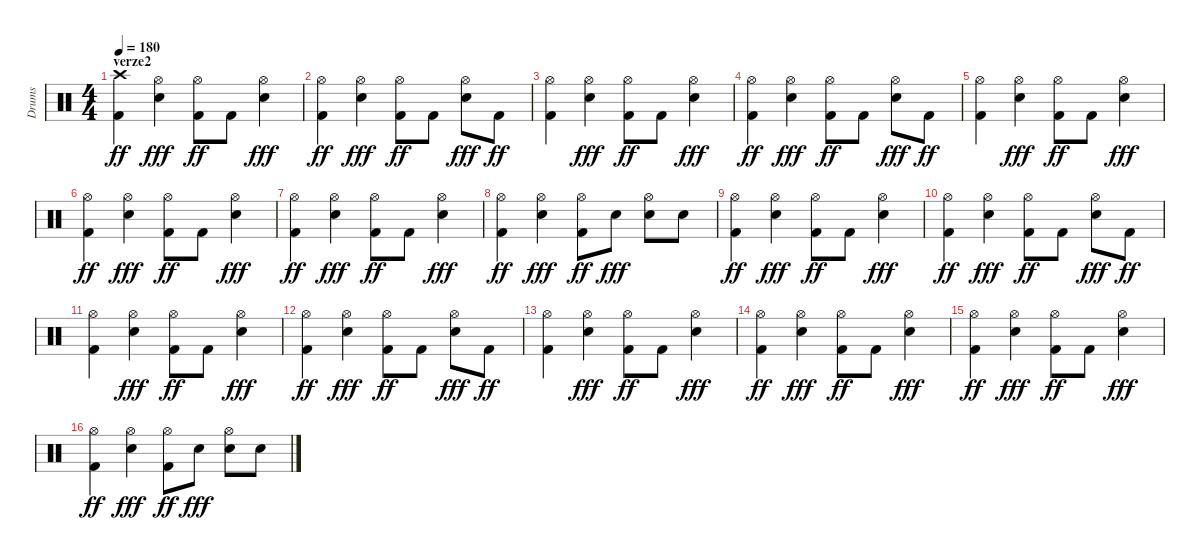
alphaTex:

\track ("Drums" "Drums") {instrument percussion}
\staff {score}
\articulation defaults
\ts (4 4)
\section ("" "verze2")
\tempo 180
\clef neutral
\ks c
("Crash high (hit)" "Kick (hit) 2").4{dy ff} ("Hi-Hat (open)" "Snare (hit) 2").4{dy fff} ("Hi-Hat (open)" "Kick (hit) 2").8{dy ff} "Kick (hit) 2".8 ("Hi-Hat (open)" "Snare (hit) 2").4{dy fff} |
("Hi-Hat (open)" "Kick (hit) 2").4{dy ff} ("Hi-Hat (open)" "Snare (hit) 2").4{dy fff} ("Hi-Hat (open)" "Kick (hit) 2").8{dy ff} "Kick (hit) 2".8 ("Hi-Hat (open)" "Snare (hit) 2").8{dy fff} "Kick (hit) 2".8{dy ff} |
("Hi-Hat (open)" "Kick (hit) 2").4 ("Hi-Hat (open)" "Snare (hit) 2").4{dy fff} ("Hi-Hat (open)" "Kick (hit) 2").8{dy ff} "Kick (hit) 2".8 ("Hi-Hat (open)" "Snare (hit) 2").4{dy fff} |
("Hi-Hat (open)" "Kick (hit) 2").4{dy ff} ("Hi-Hat (open)" "Snare (hit) 2").4{dy fff} ("Hi-Hat (open)" "Kick (hit) 2").8{dy ff} "Kick (hit) 2".8 ("Hi-Hat (open)" "Snare (hit) 2").8{dy fff} "Kick (hit) 2".8{dy ff} |
("Hi-Hat (open)" "Kick (hit) 2").4 ("Hi-Hat (open)" "Snare (hit) 2").4{dy fff} ("Hi-Hat (open)" "Kick (hit) 2").8{dy ff} "Kick (hit) 2".8 ("Hi-Hat (open)" "Snare (hit) 2").4{dy fff} |
("Hi-Hat (open)" "Kick (hit) 2").4{dy ff} ("Hi-Hat (open)" "Snare (hit) 2").4{dy fff} ("Hi-Hat (open)" "Kick (hit) 2").8{dy ff} "Kick (hit) 2".8 ("Hi-Hat (open)" "Snare (hit) 2").4{dy fff} |
("Hi-Hat (open)" "Kick (hit) 2").4{dy ff} ("Hi-Hat (open)" "Snare (hit) 2").4{dy fff} ("Hi-Hat (open)" "Kick (hit) 2").8{dy ff} "Kick (hit) 2".8 ("Hi-Hat (open)" "Snare (hit) 2").4{dy fff} |
("Hi-Hat (open)" "Kick (hit) 2").4{dy ff} ("Hi-Hat (open)" "Snare (hit) 2").4{dy fff} ("Hi-Hat (open)" "Kick (hit) 2").8{dy ff} "Snare (hit) 2".8{dy fff} ("Hi-Hat (open)" "Snare (hit) 2").8 "Snare (hit) 2".8 |
("Hi-Hat (open)" "Kick (hit) 2").4{dy ff} ("Hi-Hat (open)" "Snare (hit) 2").4{dy fff} ("Hi-Hat (open)" "Kick (hit) 2").8{dy ff} "Kick (hit) 2".8 ("Hi-Hat (open)" "Snare (hit) 2").4{dy fff} |
("Hi-Hat (open)" "Kick (hit) 2").4{dy ff} ("Hi-Hat (open)" "Snare (hit) 2").4{dy fff} ("Hi-Hat (open)" "Kick (hit) 2").8{dy ff} "Kick (hit) 2".8 ("Hi-Hat (open)" "Snare (hit) 2").8{dy fff} "Kick (hit) 2".8{dy ff} |
("Hi-Hat (open)" "Kick (hit) 2").4 ("Hi-Hat (open)" "Snare (hit) 2").4{dy fff} ("Hi-Hat (open)" "Kick (hit) 2").8{dy ff} "Kick (hit) 2".8 ("Hi-Hat (open)" "Snare (hit) 2").4{dy fff} |
("Hi-Hat (open)" "Kick (hit) 2").4{dy ff} ("Hi-Hat (open)" "Snare (hit) 2").4{dy fff} ("Hi-Hat (open)" "Kick (hit) 2").8{dy ff} "Kick (hit) 2".8 ("Hi-Hat (open)" "Snare (hit) 2").8{dy fff} "Kick (hit) 2".8{dy ff} |
("Hi-Hat (open)" "Kick (hit) 2").4 ("Hi-Hat (open)" "Snare (hit) 2").4{dy fff} ("Hi-Hat (open)" "Kick (hit) 2").8{dy ff} "Kick (hit) 2".8 ("Hi-Hat (open)" "Snare (hit) 2").4{dy fff} |
("Hi-Hat (open)" "Kick (hit) 2").4{dy ff} ("Hi-Hat (open)" "Snare (hit) 2").4{dy fff} ("Hi-Hat (open)" "Kick (hit) 2").8{dy ff} "Kick (hit) 2".8 ("Hi-Hat (open)" "Snare (hit) 2").4{dy fff} |
("Hi-Hat (open)" "Kick (hit) 2").4{dy ff} ("Hi-Hat (open)" "Snare (hit) 2").4{dy fff} ("Hi-Hat (open)" "Kick (hit) 2").8{dy ff} "Kick (hit) 2".8 ("Hi-Hat (open)" "Snare (hit) 2").4{dy fff} |
("Hi-Hat (open)" "Kick (hit) 2").4{dy ff} ("Hi-Hat (open)" "Snare (hit) 2").4{dy fff} ("Hi-Hat (open)" "Kick (hit) 2").8{dy ff} "Snare (hit) 2".8{dy fff} ("Hi-Hat (open)" "Snare (hit) 2").8 "Snare (hit) 2".8
